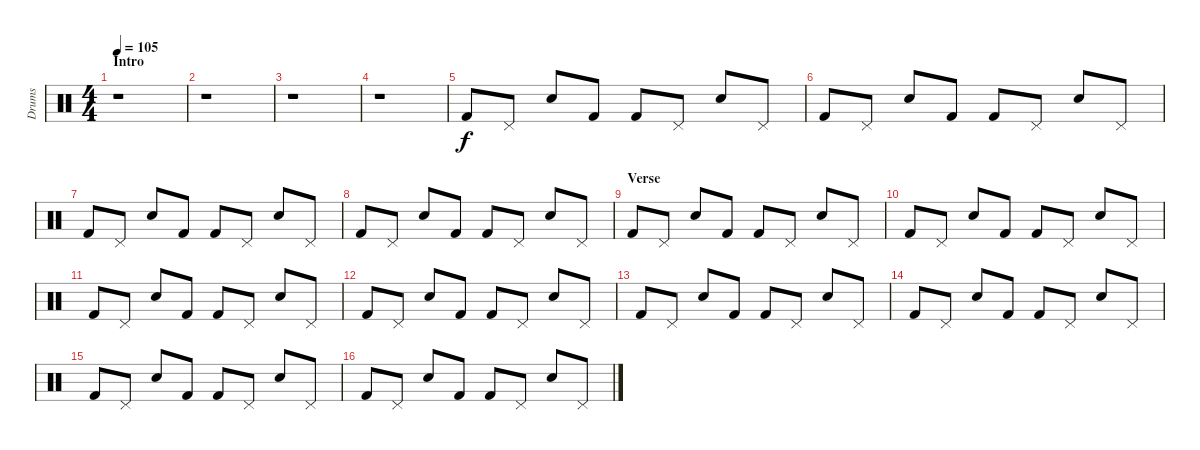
\track ("Drums" "Drums") {instrument percussion}
\staff {score}
\articulation defaults
\ts (4 4)
\section ("" "Intro")
\tempo 105
\clef neutral
\ks c
r.1{dy f} |
r.1 |
r.1 |
r.1 |
"Kick (hit) 2".8 "Pedal Hi-Hat (hit)".8 "Electric Snare (hit)".8 "Kick (hit) 2".8 "Kick (hit) 2".8 "Pedal Hi-Hat (hit)".8 "Electric Snare (hit)".8 "Pedal Hi-Hat (hit)".8 |
"Kick (hit) 2".8 "Pedal Hi-Hat (hit)".8 "Electric Snare (hit)".8 "Kick (hit) 2".8 "Kick (hit) 2".8 "Pedal Hi-Hat (hit)".8 "Electric Snare (hit)".8 "Pedal Hi-Hat (hit)".8 |
"Kick (hit) 2".8 "Pedal Hi-Hat (hit)".8 "Electric Snare (hit)".8 "Kick (hit) 2".8 "Kick (hit) 2".8 "Pedal Hi-Hat (hit)".8 "Electric Snare (hit)".8 "Pedal Hi-Hat (hit)".8 |
"Kick (hit) 2".8 "Pedal Hi-Hat (hit)".8 "Electric Snare (hit)".8 "Kick (hit) 2".8 "Kick (hit) 2".8 "Pedal Hi-Hat (hit)".8 "Electric Snare (hit)".8 "Pedal Hi-Hat (hit)".8 |
\section ("" "Verse")
"Kick (hit) 2".8 "Pedal Hi-Hat (hit)".8 "Electric Snare (hit)".8 "Kick (hit) 2".8 "Kick (hit) 2".8 "Pedal Hi-Hat (hit)".8 "Electric Snare (hit)".8 "Pedal Hi-Hat (hit)".8 |
"Kick (hit) 2".8 "Pedal Hi-Hat (hit)".8 "Electric Snare (hit)".8 "Kick (hit) 2".8 "Kick (hit) 2".8 "Pedal Hi-Hat (hit)".8 "Electric Snare (hit)".8 "Pedal Hi-Hat (hit)".8 |
"Kick (hit) 2".8 "Pedal Hi-Hat (hit)".8 "Electric Snare (hit)".8 "Kick (hit) 2".8 "Kick (hit) 2".8 "Pedal Hi-Hat (hit)".8 "Electric Snare (hit)".8 "Pedal Hi-Hat (hit)".8 |
"Kick (hit) 2".8 "Pedal Hi-Hat (hit)".8 "Electric Snare (hit)".8 "Kick (hit) 2".8 "Kick (hit) 2".8 "Pedal Hi-Hat (hit)".8 "Electric Snare (hit)".8 "Pedal Hi-Hat (hit)".8 |
"Kick (hit) 2".8 "Pedal Hi-Hat (hit)".8 "Electric Snare (hit)".8 "Kick (hit) 2".8 "Kick (hit) 2".8 "Pedal Hi-Hat (hit)".8 "Electric Snare (hit)".8 "Pedal Hi-Hat (hit)".8 |
"Kick (hit) 2".8 "Pedal Hi-Hat (hit)".8 "Electric Snare (hit)".8 "Kick (hit) 2".8 "Kick (hit) 2".8 "Pedal Hi-Hat (hit)".8 "Electric Snare (hit)".8 "Pedal Hi-Hat (hit)".8 |
"Kick (hit) 2".8 "Pedal Hi-Hat (hit)".8 "Electric Snare (hit)".8 "Kick (hit) 2".8 "Kick (hit) 2".8 "Pedal Hi-Hat (hit)".8 "Electric Snare (hit)".8 "Pedal Hi-Hat (hit)".8 |
"Kick (hit) 2".8 "Pedal Hi-Hat (hit)".8 "Electric Snare (hit)".8 "Kick (hit) 2".8 "Kick (hit) 2".8 "Pedal Hi-Hat (hit)".8 "Electric Snare (hit)".8 "Pedal Hi-Hat (hit)".8
